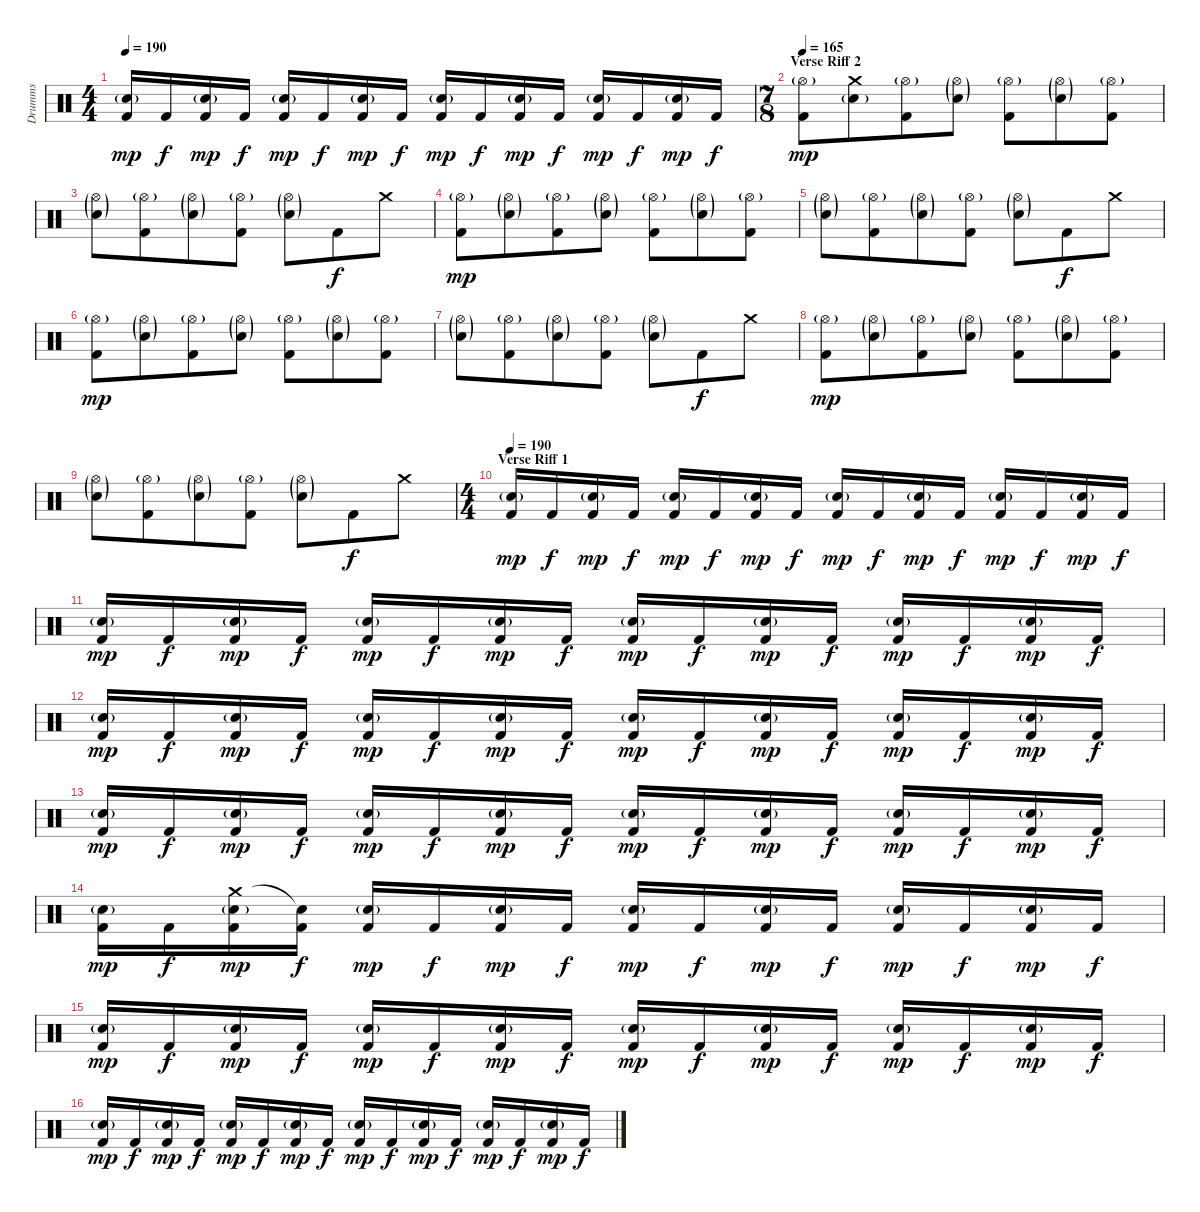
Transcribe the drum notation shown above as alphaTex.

\track ("Drumms" "Drumms") {instrument percussion}
\staff {score}
\articulation defaults
\ts (4 4)
\tempo 190
\clef neutral
\ks c
("Electric Snare (hit)"{g} "Kick (hit) 2").16{dy mp} "Kick (hit) 2".16{dy f} ("Electric Snare (hit)"{g} "Kick (hit) 2").16{dy mp} "Kick (hit) 2".16{dy f} ("Electric Snare (hit)"{g} "Kick (hit) 2").16{dy mp} "Kick (hit) 2".16{dy f} ("Electric Snare (hit)"{g} "Kick (hit) 2").16{dy mp} "Kick (hit) 2".16{dy f} ("Electric Snare (hit)"{g} "Kick (hit) 2").16{dy mp} "Kick (hit) 2".16{dy f} ("Electric Snare (hit)"{g} "Kick (hit) 2").16{dy mp} "Kick (hit) 2".16{dy f} ("Electric Snare (hit)"{g} "Kick (hit) 2").16{dy mp} "Kick (hit) 2".16{dy f} ("Electric Snare (hit)"{g} "Kick (hit) 2").16{dy mp} "Kick (hit) 2".16{dy f} |
\ts (7 8)
\section ("" "Verse Riff 2")
\tempo 165
("Hi-Hat (open)"{g} "Kick (hit) 2").8{dy mp} ("Crash medium (hit)" "Snare (hit) 2"{g}).8 ("Hi-Hat (open)"{g} "Kick (hit) 2").8 ("Hi-Hat (open)"{g} "Snare (hit) 2"{g}).8 ("Hi-Hat (open)"{g} "Kick (hit) 2").8 ("Hi-Hat (open)"{g} "Snare (hit) 2"{g}).8 ("Hi-Hat (open)"{g} "Kick (hit) 2").8 |
("Hi-Hat (open)"{g} "Snare (hit) 2"{g}).8 ("Hi-Hat (open)"{g} "Kick (hit) 2").8 ("Hi-Hat (open)"{g} "Snare (hit) 2"{g}).8 ("Hi-Hat (open)"{g} "Kick (hit) 2").8 ("Hi-Hat (open)"{g} "Snare (hit) 2"{g}).8 "Kick (hit) 2".8{dy f} "Crash medium (hit)".8 |
("Hi-Hat (open)"{g} "Kick (hit) 2").8{dy mp} ("Hi-Hat (open)"{g} "Snare (hit) 2"{g}).8 ("Hi-Hat (open)"{g} "Kick (hit) 2").8 ("Hi-Hat (open)"{g} "Snare (hit) 2"{g}).8 ("Hi-Hat (open)"{g} "Kick (hit) 2").8 ("Hi-Hat (open)"{g} "Snare (hit) 2"{g}).8 ("Hi-Hat (open)"{g} "Kick (hit) 2").8 |
("Hi-Hat (open)"{g} "Snare (hit) 2"{g}).8 ("Hi-Hat (open)"{g} "Kick (hit) 2").8 ("Hi-Hat (open)"{g} "Snare (hit) 2"{g}).8 ("Hi-Hat (open)"{g} "Kick (hit) 2").8 ("Hi-Hat (open)"{g} "Snare (hit) 2"{g}).8 "Kick (hit) 2".8{dy f} "Crash medium (hit)".8 |
("Hi-Hat (open)"{g} "Kick (hit) 2").8{dy mp} ("Hi-Hat (open)"{g} "Snare (hit) 2"{g}).8 ("Hi-Hat (open)"{g} "Kick (hit) 2").8 ("Hi-Hat (open)"{g} "Snare (hit) 2"{g}).8 ("Hi-Hat (open)"{g} "Kick (hit) 2").8 ("Hi-Hat (open)"{g} "Snare (hit) 2"{g}).8 ("Hi-Hat (open)"{g} "Kick (hit) 2").8 |
("Hi-Hat (open)"{g} "Snare (hit) 2"{g}).8 ("Hi-Hat (open)"{g} "Kick (hit) 2").8 ("Hi-Hat (open)"{g} "Snare (hit) 2"{g}).8 ("Hi-Hat (open)"{g} "Kick (hit) 2").8 ("Hi-Hat (open)"{g} "Snare (hit) 2"{g}).8 "Kick (hit) 2".8{dy f} "Crash medium (hit)".8 |
("Hi-Hat (open)"{g} "Kick (hit) 2").8{dy mp} ("Hi-Hat (open)"{g} "Snare (hit) 2"{g}).8 ("Hi-Hat (open)"{g} "Kick (hit) 2").8 ("Hi-Hat (open)"{g} "Snare (hit) 2"{g}).8 ("Hi-Hat (open)"{g} "Kick (hit) 2").8 ("Hi-Hat (open)"{g} "Snare (hit) 2"{g}).8 ("Hi-Hat (open)"{g} "Kick (hit) 2").8 |
("Hi-Hat (open)"{g} "Snare (hit) 2"{g}).8 ("Hi-Hat (open)"{g} "Kick (hit) 2").8 ("Hi-Hat (open)"{g} "Snare (hit) 2"{g}).8 ("Hi-Hat (open)"{g} "Kick (hit) 2").8 ("Hi-Hat (open)"{g} "Snare (hit) 2"{g}).8 "Kick (hit) 2".8{dy f} "Crash medium (hit)".8 |
\ts (4 4)
\section ("" "Verse Riff 1")
\tempo 190
("Electric Snare (hit)"{g} "Kick (hit) 2").16{dy mp} "Kick (hit) 2".16{dy f} ("Electric Snare (hit)"{g} "Kick (hit) 2").16{dy mp} "Kick (hit) 2".16{dy f} ("Electric Snare (hit)"{g} "Kick (hit) 2").16{dy mp} "Kick (hit) 2".16{dy f} ("Electric Snare (hit)"{g} "Kick (hit) 2").16{dy mp} "Kick (hit) 2".16{dy f} ("Electric Snare (hit)"{g} "Kick (hit) 2").16{dy mp} "Kick (hit) 2".16{dy f} ("Electric Snare (hit)"{g} "Kick (hit) 2").16{dy mp} "Kick (hit) 2".16{dy f} ("Electric Snare (hit)"{g} "Kick (hit) 2").16{dy mp} "Kick (hit) 2".16{dy f} ("Electric Snare (hit)"{g} "Kick (hit) 2").16{dy mp} "Kick (hit) 2".16{dy f} |
("Electric Snare (hit)"{g} "Kick (hit) 2").16{dy mp} "Kick (hit) 2".16{dy f} ("Electric Snare (hit)"{g} "Kick (hit) 2").16{dy mp} "Kick (hit) 2".16{dy f} ("Electric Snare (hit)"{g} "Kick (hit) 2").16{dy mp} "Kick (hit) 2".16{dy f} ("Electric Snare (hit)"{g} "Kick (hit) 2").16{dy mp} "Kick (hit) 2".16{dy f} ("Electric Snare (hit)"{g} "Kick (hit) 2").16{dy mp} "Kick (hit) 2".16{dy f} ("Electric Snare (hit)"{g} "Kick (hit) 2").16{dy mp} "Kick (hit) 2".16{dy f} ("Electric Snare (hit)"{g} "Kick (hit) 2").16{dy mp} "Kick (hit) 2".16{dy f} ("Electric Snare (hit)"{g} "Kick (hit) 2").16{dy mp} "Kick (hit) 2".16{dy f} |
("Electric Snare (hit)"{g} "Kick (hit) 2").16{dy mp} "Kick (hit) 2".16{dy f} ("Electric Snare (hit)"{g} "Kick (hit) 2").16{dy mp} "Kick (hit) 2".16{dy f} ("Electric Snare (hit)"{g} "Kick (hit) 2").16{dy mp} "Kick (hit) 2".16{dy f} ("Electric Snare (hit)"{g} "Kick (hit) 2").16{dy mp} "Kick (hit) 2".16{dy f} ("Electric Snare (hit)"{g} "Kick (hit) 2").16{dy mp} "Kick (hit) 2".16{dy f} ("Electric Snare (hit)"{g} "Kick (hit) 2").16{dy mp} "Kick (hit) 2".16{dy f} ("Electric Snare (hit)"{g} "Kick (hit) 2").16{dy mp} "Kick (hit) 2".16{dy f} ("Electric Snare (hit)"{g} "Kick (hit) 2").16{dy mp} "Kick (hit) 2".16{dy f} |
("Electric Snare (hit)"{g} "Kick (hit) 2").16{dy mp} "Kick (hit) 2".16{dy f} ("Electric Snare (hit)"{g} "Kick (hit) 2").16{dy mp} "Kick (hit) 2".16{dy f} ("Electric Snare (hit)"{g} "Kick (hit) 2").16{dy mp} "Kick (hit) 2".16{dy f} ("Electric Snare (hit)"{g} "Kick (hit) 2").16{dy mp} "Kick (hit) 2".16{dy f} ("Electric Snare (hit)"{g} "Kick (hit) 2").16{dy mp} "Kick (hit) 2".16{dy f} ("Electric Snare (hit)"{g} "Kick (hit) 2").16{dy mp} "Kick (hit) 2".16{dy f} ("Electric Snare (hit)"{g} "Kick (hit) 2").16{dy mp} "Kick (hit) 2".16{dy f} ("Electric Snare (hit)"{g} "Kick (hit) 2").16{dy mp} "Kick (hit) 2".16{dy f} |
("Electric Snare (hit)"{g} "Kick (hit) 2").16{dy mp} "Kick (hit) 2".16{dy f} ("Crash medium (hit)" "Electric Snare (hit)"{g} "Kick (hit) 2").16{dy mp} ("Snare (hit)"{t} "Kick (hit) 2").16{dy f} ("Electric Snare (hit)"{g} "Kick (hit) 2").16{dy mp} "Kick (hit) 2".16{dy f} ("Electric Snare (hit)"{g} "Kick (hit) 2").16{dy mp} "Kick (hit) 2".16{dy f} ("Electric Snare (hit)"{g} "Kick (hit) 2").16{dy mp} "Kick (hit) 2".16{dy f} ("Electric Snare (hit)"{g} "Kick (hit) 2").16{dy mp} "Kick (hit) 2".16{dy f} ("Electric Snare (hit)"{g} "Kick (hit) 2").16{dy mp} "Kick (hit) 2".16{dy f} ("Electric Snare (hit)"{g} "Kick (hit) 2").16{dy mp} "Kick (hit) 2".16{dy f} |
("Electric Snare (hit)"{g} "Kick (hit) 2").16{dy mp} "Kick (hit) 2".16{dy f} ("Electric Snare (hit)"{g} "Kick (hit) 2").16{dy mp} "Kick (hit) 2".16{dy f} ("Electric Snare (hit)"{g} "Kick (hit) 2").16{dy mp} "Kick (hit) 2".16{dy f} ("Electric Snare (hit)"{g} "Kick (hit) 2").16{dy mp} "Kick (hit) 2".16{dy f} ("Electric Snare (hit)"{g} "Kick (hit) 2").16{dy mp} "Kick (hit) 2".16{dy f} ("Electric Snare (hit)"{g} "Kick (hit) 2").16{dy mp} "Kick (hit) 2".16{dy f} ("Electric Snare (hit)"{g} "Kick (hit) 2").16{dy mp} "Kick (hit) 2".16{dy f} ("Electric Snare (hit)"{g} "Kick (hit) 2").16{dy mp} "Kick (hit) 2".16{dy f} |
("Electric Snare (hit)"{g} "Kick (hit) 2").16{dy mp} "Kick (hit) 2".16{dy f} ("Electric Snare (hit)"{g} "Kick (hit) 2").16{dy mp} "Kick (hit) 2".16{dy f} ("Electric Snare (hit)"{g} "Kick (hit) 2").16{dy mp} "Kick (hit) 2".16{dy f} ("Electric Snare (hit)"{g} "Kick (hit) 2").16{dy mp} "Kick (hit) 2".16{dy f} ("Electric Snare (hit)"{g} "Kick (hit) 2").16{dy mp} "Kick (hit) 2".16{dy f} ("Electric Snare (hit)"{g} "Kick (hit) 2").16{dy mp} "Kick (hit) 2".16{dy f} ("Electric Snare (hit)"{g} "Kick (hit) 2").16{dy mp} "Kick (hit) 2".16{dy f} ("Electric Snare (hit)"{g} "Kick (hit) 2").16{dy mp} "Kick (hit) 2".16{dy f}
